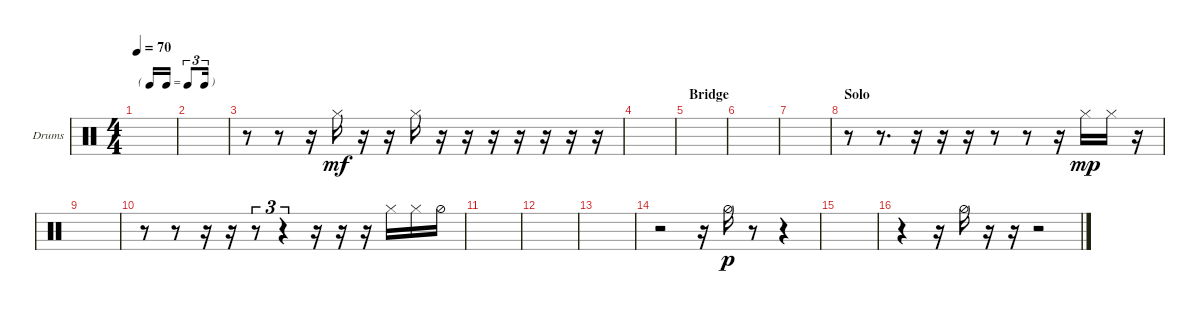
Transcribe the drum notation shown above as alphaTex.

\bracketExtendMode groupsimilarinstruments
\firstSystemTrackNameOrientation horizontal
\otherSystemsTrackNameOrientation horizontal
\track ("HH" "Drums") {instrument percussion}
\staff {score}
\articulation defaults
\ts (4 4)
\tf triplet16th
\tempo 70
\clef neutral
\ks aminor
|
|
r.8 r.8 r.16 "Hi-Hat (closed)".16{dy mf} r.16 r.16 "Hi-Hat (closed)".16 r.16 r.16 r.16 r.16 r.16 r.16 r.16 |
|
\section ("" "Bridge")
|
|
|
\section ("" "Solo")
r.8 r.8{d} r.16 r.16 r.16 r.8 r.8 r.16 "Hi-Hat (closed)".16{dy mp} "Hi-Hat (closed)".16 r.16 |
|
r.8 r.8 r.16 r.16 r.8{tu (3 2)} r.4{tu (3 2)} r.16 r.16 r.16 "Hi-Hat (closed)".16 "Hi-Hat (closed)".16 "Hi-Hat (half)".16 |
|
|
|
r.2 r.16 "Hi-Hat (half)".16{dy p} r.8 r.4 |
|
r.4 r.16 "Hi-Hat (half)".16 r.16 r.16 r.2
